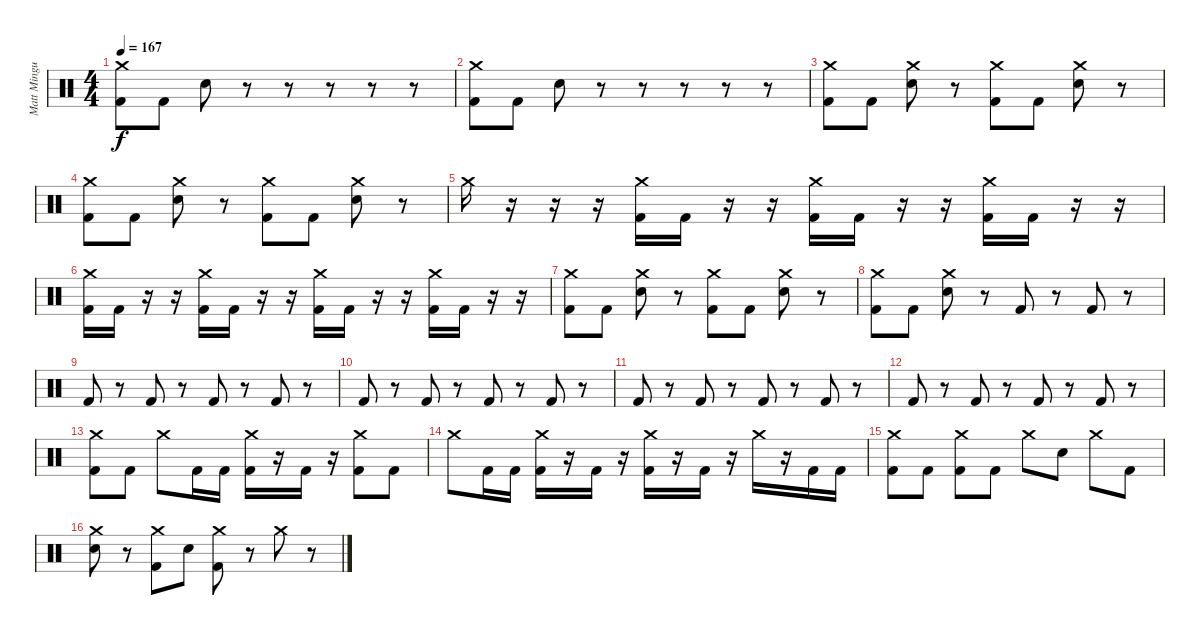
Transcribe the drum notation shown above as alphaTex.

\track ("Matt Mingus" "Matt Mingu") {instrument percussion}
\staff {score}
\articulation defaults
\ts (4 4)
\tempo 167
\clef neutral
\ks c
("Kick (hit) 2" "Crash medium (hit)").8{dy f} "Kick (hit) 2".8 "Electric Snare (hit)".8 r.8 r.8 r.8 r.8 r.8 |
("Kick (hit) 2" "Crash medium (hit)").8 "Kick (hit) 2".8 "Electric Snare (hit)".8 r.8 r.8 r.8 r.8 r.8 |
("Kick (hit) 2" "Crash medium (hit)").8 "Kick (hit) 2".8 ("Electric Snare (hit)" "Crash medium (hit)").8 r.8 ("Kick (hit) 2" "Crash medium (hit)").8 "Kick (hit) 2".8 ("Electric Snare (hit)" "Crash medium (hit)").8 r.8 |
("Kick (hit) 2" "Crash medium (hit)").8 "Kick (hit) 2".8 ("Electric Snare (hit)" "Crash medium (hit)").8 r.8 ("Kick (hit) 2" "Crash medium (hit)").8 "Kick (hit) 2".8 ("Electric Snare (hit)" "Crash medium (hit)").8 r.8 |
"Crash medium (hit)".16 r.16 r.16 r.16 ("Kick (hit) 2" "Crash medium (hit)").16 "Kick (hit) 2".16 r.16 r.16 ("Kick (hit) 2" "Crash medium (hit)").16 "Kick (hit) 2".16 r.16 r.16 ("Kick (hit) 2" "Crash medium (hit)").16 "Kick (hit) 2".16 r.16 r.16 |
("Kick (hit) 2" "Crash medium (hit)").16 "Kick (hit) 2".16 r.16 r.16 ("Kick (hit) 2" "Crash medium (hit)").16 "Kick (hit) 2".16 r.16 r.16 ("Kick (hit) 2" "Crash medium (hit)").16 "Kick (hit) 2".16 r.16 r.16 ("Kick (hit) 2" "Crash medium (hit)").16 "Kick (hit) 2".16 r.16 r.16 |
("Kick (hit) 2" "Crash medium (hit)").8 "Kick (hit) 2".8 ("Electric Snare (hit)" "Crash medium (hit)").8 r.8 ("Kick (hit) 2" "Crash medium (hit)").8 "Kick (hit) 2".8 ("Electric Snare (hit)" "Crash medium (hit)").8 r.8 |
("Kick (hit) 2" "Crash medium (hit)").8 "Kick (hit) 2".8 ("Electric Snare (hit)" "Crash medium (hit)").8 r.8 "Kick (hit) 2".8 r.8 "Kick (hit) 2".8 r.8 |
"Kick (hit) 2".8 r.8 "Kick (hit) 2".8 r.8 "Kick (hit) 2".8 r.8 "Kick (hit) 2".8 r.8 |
"Kick (hit) 2".8 r.8 "Kick (hit) 2".8 r.8 "Kick (hit) 2".8 r.8 "Kick (hit) 2".8 r.8 |
"Kick (hit) 2".8 r.8 "Kick (hit) 2".8 r.8 "Kick (hit) 2".8 r.8 "Kick (hit) 2".8 r.8 |
"Kick (hit) 2".8 r.8 "Kick (hit) 2".8 r.8 "Kick (hit) 2".8 r.8 "Kick (hit) 2".8 r.8 |
("Kick (hit) 2" "Crash medium (hit)").8 "Kick (hit) 2".8 "Crash medium (hit)".8 "Kick (hit) 2".16 "Kick (hit) 2".16 ("Kick (hit) 2" "Crash medium (hit)").16 r.16 "Kick (hit) 2".16 r.16 ("Kick (hit) 2" "Crash medium (hit)").8 "Kick (hit) 2".8 |
"Crash medium (hit)".8 "Kick (hit) 2".16 "Kick (hit) 2".16 ("Kick (hit) 2" "Crash medium (hit)").16 r.16 "Kick (hit) 2".16 r.16 ("Kick (hit) 2" "Crash medium (hit)").16 r.16 "Kick (hit) 2".16 r.16 "Crash medium (hit)".16 r.16 "Kick (hit) 2".16 "Kick (hit) 2".16 |
("Kick (hit) 2" "Crash medium (hit)").8 "Kick (hit) 2".8 ("Kick (hit) 2" "Crash medium (hit)").8 "Kick (hit) 2".8 "Crash medium (hit)".8 "Electric Snare (hit)".8 "Crash medium (hit)".8 "Kick (hit) 2".8 |
("Electric Snare (hit)" "Crash medium (hit)").8 r.8 ("Kick (hit) 2" "Crash medium (hit)").8 "Electric Snare (hit)".8 ("Kick (hit) 2" "Crash medium (hit)").8 r.8 "Crash medium (hit)".8 r.8
